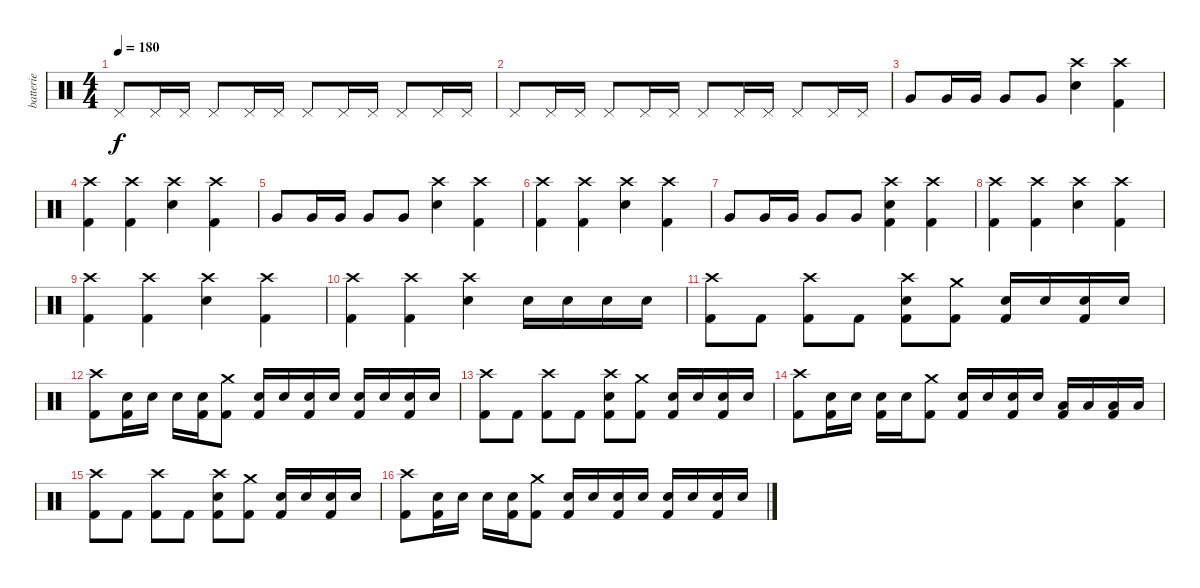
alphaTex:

\track ("batterie" "batterie") {instrument percussion}
\staff {score}
\articulation defaults
\ts (4 4)
\tempo 180
\clef neutral
\ks c "Pedal Hi-Hat (hit)".8{dy f} "Pedal Hi-Hat (hit)".16 "Pedal Hi-Hat (hit)".16 "Pedal Hi-Hat (hit)".8 "Pedal Hi-Hat (hit)".16 "Pedal Hi-Hat (hit)".16 "Pedal Hi-Hat (hit)".8 "Pedal Hi-Hat (hit)".16 "Pedal Hi-Hat (hit)".16 "Pedal Hi-Hat (hit)".8 "Pedal Hi-Hat (hit)".16 "Pedal Hi-Hat (hit)".16
|
"Pedal Hi-Hat (hit)".8 "Pedal Hi-Hat (hit)".16 "Pedal Hi-Hat (hit)".16 "Pedal Hi-Hat (hit)".8 "Pedal Hi-Hat (hit)".16 "Pedal Hi-Hat (hit)".16 "Pedal Hi-Hat (hit)".8 "Pedal Hi-Hat (hit)".16 "Pedal Hi-Hat (hit)".16 "Pedal Hi-Hat (hit)".8 "Pedal Hi-Hat (hit)".16 "Pedal Hi-Hat (hit)".16 |
"Very Low Tom (hit)".8 "Very Low Tom (hit)".16 "Very Low Tom (hit)".16 "Very Low Tom (hit)".8 "Very Low Tom (hit)".8 ("Crash high (hit)" "Electric Snare (hit)").4 ("Crash high (hit)" "Kick (hit) 2").4 |
("Crash high (hit)" "Kick (hit) 2").4 ("Crash high (hit)" "Kick (hit) 2").4 ("Crash high (hit)" "Electric Snare (hit)").4 ("Crash high (hit)" "Kick (hit) 2").4 |
"Very Low Tom (hit)".8 "Very Low Tom (hit)".16 "Very Low Tom (hit)".16 "Very Low Tom (hit)".8 "Very Low Tom (hit)".8 ("Crash high (hit)" "Electric Snare (hit)").4 ("Crash high (hit)" "Kick (hit) 2").4 |
("Crash high (hit)" "Kick (hit) 2").4 ("Crash high (hit)" "Kick (hit) 2").4 ("Crash high (hit)" "Electric Snare (hit)").4 ("Crash high (hit)" "Kick (hit) 2").4 |
"Very Low Tom (hit)".8 "Very Low Tom (hit)".16 "Very Low Tom (hit)".16 "Very Low Tom (hit)".8 "Very Low Tom (hit)".8 ("Crash high (hit)" "Electric Snare (hit)" "Kick (hit) 2").4 ("Crash high (hit)" "Kick (hit) 2").4 |
("Crash high (hit)" "Kick (hit) 2").4 ("Crash high (hit)" "Kick (hit) 2").4 ("Crash high (hit)" "Electric Snare (hit)").4 ("Crash high (hit)" "Kick (hit) 2").4 |
("Crash high (hit)" "Kick (hit) 2").4 ("Crash high (hit)" "Kick (hit) 2").4 ("Crash high (hit)" "Electric Snare (hit)").4 ("Crash high (hit)" "Kick (hit) 2").4 |
("Crash high (hit)" "Kick (hit) 2").4 ("Crash high (hit)" "Kick (hit) 2").4 ("Crash high (hit)" "Electric Snare (hit)").4 "Electric Snare (hit)".16 "Electric Snare (hit)".16 "Electric Snare (hit)".16 "Electric Snare (hit)".16 |
("Crash high (hit)" "Kick (hit) 2").8 "Kick (hit) 2".8 ("Crash high (hit)" "Kick (hit) 2").8 "Kick (hit) 2".8 ("Crash high (hit)" "Electric Snare (hit)" "Kick (hit) 2").8 ("Crash medium (hit)" "Kick (hit) 2").8 ("Electric Snare (hit)" "Kick (hit) 2").16 "Electric Snare (hit)".16 ("Electric Snare (hit)" "Kick (hit) 2").16 "Electric Snare (hit)".16 |
("Crash high (hit)" "Kick (hit) 2").8 ("Electric Snare (hit)" "Kick (hit) 2").16 "Electric Snare (hit)".16 "Electric Snare (hit)".16 ("Electric Snare (hit)" "Kick (hit) 2").16 ("Crash medium (hit)" "Kick (hit) 2").8 ("Electric Snare (hit)" "Kick (hit) 2").16 "Electric Snare (hit)".16 ("Electric Snare (hit)" "Kick (hit) 2").16 "Electric Snare (hit)".16 ("Electric Snare (hit)" "Kick (hit) 2").16 "Electric Snare (hit)".16 ("Electric Snare (hit)" "Kick (hit) 2").16 "Electric Snare (hit)".16 |
("Crash high (hit)" "Kick (hit) 2").8 "Kick (hit) 2".8 ("Crash high (hit)" "Kick (hit) 2").8 "Kick (hit) 2".8 ("Crash high (hit)" "Electric Snare (hit)" "Kick (hit) 2").8 ("Crash medium (hit)" "Kick (hit) 2").8 ("Electric Snare (hit)" "Kick (hit) 2").16 "Electric Snare (hit)".16 ("Electric Snare (hit)" "Kick (hit) 2").16 "Electric Snare (hit)".16 |
("Crash high (hit)" "Kick (hit) 2").8 ("Electric Snare (hit)" "Kick (hit) 2").16 "Electric Snare (hit)".16 ("Electric Snare (hit)" "Kick (hit) 2").16 "Electric Snare (hit)".16 ("Crash medium (hit)" "Kick (hit) 2").8 ("Electric Snare (hit)" "Kick (hit) 2").16 "Electric Snare (hit)".16 ("Electric Snare (hit)" "Kick (hit) 2").16 "Electric Snare (hit)".16 ("Low Tom (hit)" "Kick (hit) 2").16 "Low Tom (hit)".16 ("Low Tom (hit)" "Kick (hit) 2").16 "Low Tom (hit)".16 |
("Crash high (hit)" "Kick (hit) 2").8 "Kick (hit) 2".8 ("Crash high (hit)" "Kick (hit) 2").8 "Kick (hit) 2".8 ("Crash high (hit)" "Electric Snare (hit)" "Kick (hit) 2").8 ("Crash medium (hit)" "Kick (hit) 2").8 ("Electric Snare (hit)" "Kick (hit) 2").16 "Electric Snare (hit)".16 ("Electric Snare (hit)" "Kick (hit) 2").16 "Electric Snare (hit)".16 |
("Crash high (hit)" "Kick (hit) 2").8 ("Electric Snare (hit)" "Kick (hit) 2").16 "Electric Snare (hit)".16 "Electric Snare (hit)".16 ("Electric Snare (hit)" "Kick (hit) 2").16 ("Crash medium (hit)" "Kick (hit) 2").8 ("Electric Snare (hit)" "Kick (hit) 2").16 "Electric Snare (hit)".16 ("Electric Snare (hit)" "Kick (hit) 2").16 "Electric Snare (hit)".16 ("Electric Snare (hit)" "Kick (hit) 2").16 "Electric Snare (hit)".16 ("Electric Snare (hit)" "Kick (hit) 2").16 "Electric Snare (hit)".16
